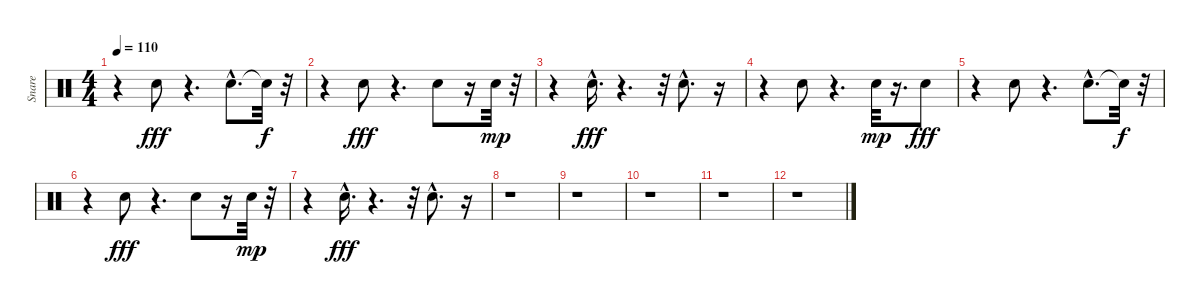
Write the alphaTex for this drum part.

\track ("Snare" "Snare") {instrument percussion}
\staff {score}
\articulation defaults
\ts (4 4)
\tempo 110
\clef neutral
\ks c
r.4{dy fff} "Snare (hit) 2".8 r.4{d} "Snare (hit) 2"{hac}.8{d} "Snare (hit)"{t}.32{dy f} r.32 |
r.4 "Snare (hit) 2".8{dy fff} r.4{d} "Snare (hit) 2".8 r.16 "Snare (hit) 2".32{dy mp} r.32 |
r.4 "Snare (hit) 2"{hac}.16{d dy fff} r.4{d} r.32 "Snare (hit) 2"{hac}.8{d} r.16 |
r.4 "Snare (hit) 2".8 r.4{d} "Snare (hit) 2".32{dy mp} r.16{d} "Snare (hit) 2".8{dy fff} |
r.4 "Snare (hit) 2".8 r.4{d} "Snare (hit) 2"{hac}.8{d} "Snare (hit)"{t}.32{dy f} r.32 |
r.4 "Snare (hit) 2".8{dy fff} r.4{d} "Snare (hit) 2".8 r.16 "Snare (hit) 2".32{dy mp} r.32 |
r.4 "Snare (hit) 2"{hac}.16{d dy fff} r.4{d} r.32 "Snare (hit) 2"{hac}.8{d} r.16 |
r.1 |
r.1 |
r.1 |
r.1 |
r.1
